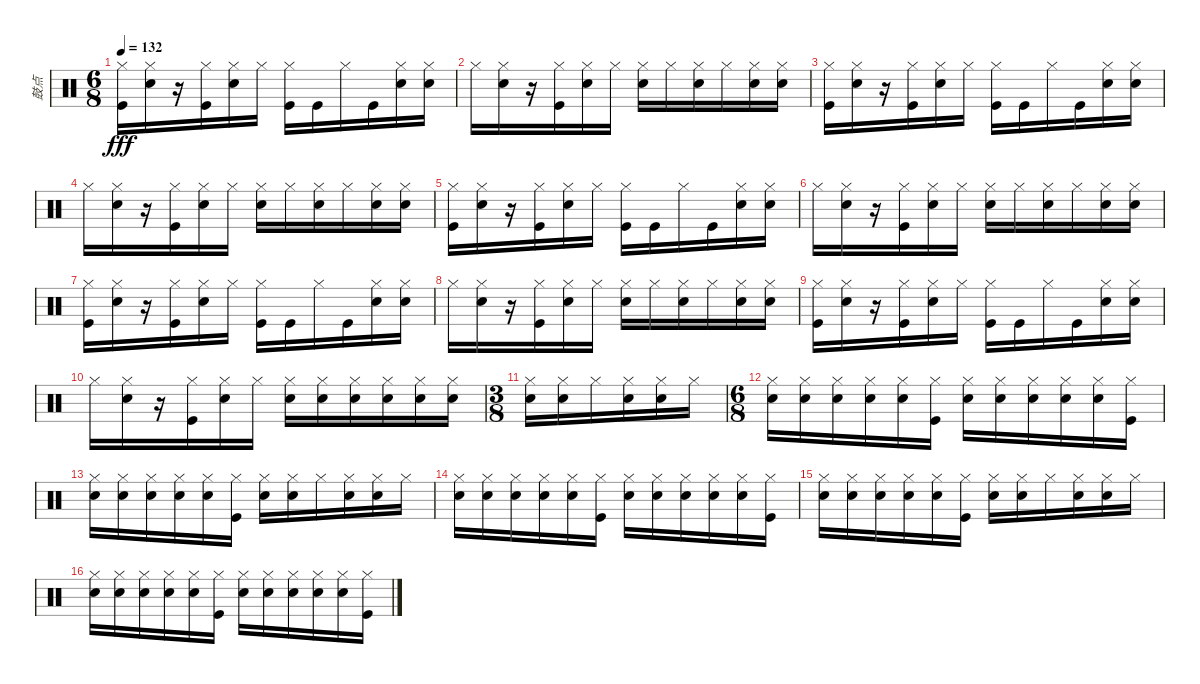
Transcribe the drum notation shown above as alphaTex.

\track ("鼓点" "鼓点") {instrument percussion}
\staff {score}
\articulation defaults
\ts (6 8)
\tempo 132
\clef neutral
\ks c
("Kick (hit)" "Hi-Hat (closed)").16{dy fff} ("Snare (hit) 2" "Hi-Hat (closed)").16 r.16 ("Kick (hit)" "Hi-Hat (closed)").16 ("Snare (hit) 2" "Hi-Hat (closed)").16 "Hi-Hat (closed)".16 ("Kick (hit)" "Hi-Hat (closed)").16 "Kick (hit)".16 "Hi-Hat (closed)".16 "Kick (hit)".16 ("Snare (hit) 2" "Hi-Hat (closed)").16 ("Snare (hit) 2" "Hi-Hat (closed)").16 |
"Hi-Hat (closed)".16 ("Snare (hit) 2" "Hi-Hat (closed)").16 r.16 ("Kick (hit)" "Hi-Hat (closed)").16 ("Snare (hit) 2" "Hi-Hat (closed)").16 "Hi-Hat (closed)".16 ("Snare (hit) 2" "Hi-Hat (closed)").16 "Hi-Hat (closed)".16 ("Snare (hit) 2" "Hi-Hat (closed)").16 "Hi-Hat (closed)".16 ("Snare (hit) 2" "Hi-Hat (closed)").16 ("Snare (hit) 2" "Hi-Hat (closed)").16 |
("Kick (hit)" "Hi-Hat (closed)").16 ("Snare (hit) 2" "Hi-Hat (closed)").16 r.16 ("Kick (hit)" "Hi-Hat (closed)").16 ("Snare (hit) 2" "Hi-Hat (closed)").16 "Hi-Hat (closed)".16 ("Kick (hit)" "Hi-Hat (closed)").16 "Kick (hit)".16 "Hi-Hat (closed)".16 "Kick (hit)".16 ("Snare (hit) 2" "Hi-Hat (closed)").16 ("Snare (hit) 2" "Hi-Hat (closed)").16 |
"Hi-Hat (closed)".16 ("Snare (hit) 2" "Hi-Hat (closed)").16 r.16 ("Kick (hit)" "Hi-Hat (closed)").16 ("Snare (hit) 2" "Hi-Hat (closed)").16 "Hi-Hat (closed)".16 ("Snare (hit) 2" "Hi-Hat (closed)").16 "Hi-Hat (closed)".16 ("Snare (hit) 2" "Hi-Hat (closed)").16 "Hi-Hat (closed)".16 ("Snare (hit) 2" "Hi-Hat (closed)").16 ("Snare (hit) 2" "Hi-Hat (closed)").16 |
("Kick (hit)" "Hi-Hat (closed)").16 ("Snare (hit) 2" "Hi-Hat (closed)").16 r.16 ("Kick (hit)" "Hi-Hat (closed)").16 ("Snare (hit) 2" "Hi-Hat (closed)").16 "Hi-Hat (closed)".16 ("Kick (hit)" "Hi-Hat (closed)").16 "Kick (hit)".16 "Hi-Hat (closed)".16 "Kick (hit)".16 ("Snare (hit) 2" "Hi-Hat (closed)").16 ("Snare (hit) 2" "Hi-Hat (closed)").16 |
"Hi-Hat (closed)".16 ("Snare (hit) 2" "Hi-Hat (closed)").16 r.16 ("Kick (hit)" "Hi-Hat (closed)").16 ("Snare (hit) 2" "Hi-Hat (closed)").16 "Hi-Hat (closed)".16 ("Snare (hit) 2" "Hi-Hat (closed)").16 "Hi-Hat (closed)".16 ("Snare (hit) 2" "Hi-Hat (closed)").16 "Hi-Hat (closed)".16 ("Snare (hit) 2" "Hi-Hat (closed)").16 ("Snare (hit) 2" "Hi-Hat (closed)").16 |
("Kick (hit)" "Hi-Hat (closed)").16 ("Snare (hit) 2" "Hi-Hat (closed)").16 r.16 ("Kick (hit)" "Hi-Hat (closed)").16 ("Snare (hit) 2" "Hi-Hat (closed)").16 "Hi-Hat (closed)".16 ("Kick (hit)" "Hi-Hat (closed)").16 "Kick (hit)".16 "Hi-Hat (closed)".16 "Kick (hit)".16 ("Snare (hit) 2" "Hi-Hat (closed)").16 ("Snare (hit) 2" "Hi-Hat (closed)").16 |
"Hi-Hat (closed)".16 ("Snare (hit) 2" "Hi-Hat (closed)").16 r.16 ("Kick (hit)" "Hi-Hat (closed)").16 ("Snare (hit) 2" "Hi-Hat (closed)").16 "Hi-Hat (closed)".16 ("Snare (hit) 2" "Hi-Hat (closed)").16 "Hi-Hat (closed)".16 ("Snare (hit) 2" "Hi-Hat (closed)").16 "Hi-Hat (closed)".16 ("Snare (hit) 2" "Hi-Hat (closed)").16 ("Snare (hit) 2" "Hi-Hat (closed)").16 |
("Kick (hit)" "Hi-Hat (closed)").16 ("Snare (hit) 2" "Hi-Hat (closed)").16 r.16 ("Kick (hit)" "Hi-Hat (closed)").16 ("Snare (hit) 2" "Hi-Hat (closed)").16 "Hi-Hat (closed)".16 ("Kick (hit)" "Hi-Hat (closed)").16 "Kick (hit)".16 "Hi-Hat (closed)".16 "Kick (hit)".16 ("Snare (hit) 2" "Hi-Hat (closed)").16 ("Snare (hit) 2" "Hi-Hat (closed)").16 |
"Hi-Hat (closed)".16 ("Snare (hit) 2" "Hi-Hat (closed)").16 r.16 ("Kick (hit)" "Hi-Hat (closed)").16 ("Snare (hit) 2" "Hi-Hat (closed)").16 "Hi-Hat (closed)".16 ("Snare (hit) 2" "Hi-Hat (closed)").16 ("Snare (hit) 2" "Hi-Hat (closed)").16 ("Snare (hit) 2" "Hi-Hat (closed)").16 ("Snare (hit) 2" "Hi-Hat (closed)").16 ("Snare (hit) 2" "Hi-Hat (closed)").16 ("Snare (hit) 2" "Hi-Hat (closed)").16 |
\ts (3 8)
("Snare (hit) 2" "Hi-Hat (closed)").16 ("Snare (hit) 2" "Hi-Hat (closed)").16 "Hi-Hat (closed)".16 ("Snare (hit) 2" "Hi-Hat (closed)").16 ("Snare (hit) 2" "Hi-Hat (closed)").16 "Hi-Hat (closed)".16 |
\ts (6 8)
("Snare (hit) 2" "Hi-Hat (closed)").16 ("Snare (hit) 2" "Hi-Hat (closed)").16 ("Snare (hit) 2" "Hi-Hat (closed)").16 ("Snare (hit) 2" "Hi-Hat (closed)").16 ("Snare (hit) 2" "Hi-Hat (closed)").16 ("Kick (hit)" "Hi-Hat (closed)").16 ("Snare (hit) 2" "Hi-Hat (closed)").16 ("Snare (hit) 2" "Hi-Hat (closed)").16 ("Snare (hit) 2" "Hi-Hat (closed)").16 ("Snare (hit) 2" "Hi-Hat (closed)").16 ("Snare (hit) 2" "Hi-Hat (closed)").16 ("Kick (hit)" "Hi-Hat (closed)").16 |
("Snare (hit) 2" "Hi-Hat (closed)").16 ("Snare (hit) 2" "Hi-Hat (closed)").16 ("Snare (hit) 2" "Hi-Hat (closed)").16 ("Snare (hit) 2" "Hi-Hat (closed)").16 ("Snare (hit) 2" "Hi-Hat (closed)").16 ("Kick (hit)" "Hi-Hat (closed)").16 ("Snare (hit) 2" "Hi-Hat (closed)").16 ("Snare (hit) 2" "Hi-Hat (closed)").16 "Hi-Hat (closed)".16 ("Snare (hit) 2" "Hi-Hat (closed)").16 ("Snare (hit) 2" "Hi-Hat (closed)").16 "Hi-Hat (closed)".16 |
("Snare (hit) 2" "Hi-Hat (closed)").16 ("Snare (hit) 2" "Hi-Hat (closed)").16 ("Snare (hit) 2" "Hi-Hat (closed)").16 ("Snare (hit) 2" "Hi-Hat (closed)").16 ("Snare (hit) 2" "Hi-Hat (closed)").16 ("Kick (hit)" "Hi-Hat (closed)").16 ("Snare (hit) 2" "Hi-Hat (closed)").16 ("Snare (hit) 2" "Hi-Hat (closed)").16 ("Snare (hit) 2" "Hi-Hat (closed)").16 ("Snare (hit) 2" "Hi-Hat (closed)").16 ("Snare (hit) 2" "Hi-Hat (closed)").16 ("Kick (hit)" "Hi-Hat (closed)").16 |
("Snare (hit) 2" "Hi-Hat (closed)").16 ("Snare (hit) 2" "Hi-Hat (closed)").16 ("Snare (hit) 2" "Hi-Hat (closed)").16 ("Snare (hit) 2" "Hi-Hat (closed)").16 ("Snare (hit) 2" "Hi-Hat (closed)").16 ("Kick (hit)" "Hi-Hat (closed)").16 ("Snare (hit) 2" "Hi-Hat (closed)").16 ("Snare (hit) 2" "Hi-Hat (closed)").16 "Hi-Hat (closed)".16 ("Snare (hit) 2" "Hi-Hat (closed)").16 ("Snare (hit) 2" "Hi-Hat (closed)").16 "Hi-Hat (closed)".16 |
("Snare (hit) 2" "Hi-Hat (closed)").16 ("Snare (hit) 2" "Hi-Hat (closed)").16 ("Snare (hit) 2" "Hi-Hat (closed)").16 ("Snare (hit) 2" "Hi-Hat (closed)").16 ("Snare (hit) 2" "Hi-Hat (closed)").16 ("Kick (hit)" "Hi-Hat (closed)").16 ("Snare (hit) 2" "Hi-Hat (closed)").16 ("Snare (hit) 2" "Hi-Hat (closed)").16 ("Snare (hit) 2" "Hi-Hat (closed)").16 ("Snare (hit) 2" "Hi-Hat (closed)").16 ("Snare (hit) 2" "Hi-Hat (closed)").16 ("Kick (hit)" "Hi-Hat (closed)").16
